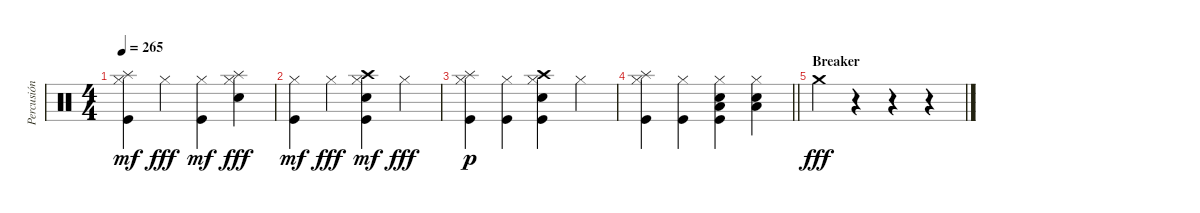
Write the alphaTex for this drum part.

\track ("Percusión" "Percusión") {instrument percussion}
\staff {score}
\articulation defaults
\ts (4 4)
\tempo 265
\clef neutral
\ks c
("Splash (hit)" "Hi-Hat (closed)" "Kick (hit)").4{dy mf} "Hi-Hat (closed)".4{dy fff} ("Hi-Hat (closed)" "Kick (hit)").4{dy mf} ("Splash (hit)" "Electric Snare (hit)" "Hi-Hat (closed)").4{dy fff} |
("Hi-Hat (closed)" "Kick (hit)").4{dy mf} "Hi-Hat (closed)".4{dy fff} ("Crash high (hit)" "Electric Snare (hit)" "Hi-Hat (closed)" "Kick (hit)").4{dy mf} "Hi-Hat (closed)".4{dy fff} |
("Splash (hit)" "Hi-Hat (closed)" "Kick (hit)").4{dy p} ("Hi-Hat (closed)" "Kick (hit)").4 ("Crash high (hit)" "Electric Snare (hit)" "Hi-Hat (closed)" "Kick (hit)").4 "Hi-Hat (closed)".4 |
\barLineRight lightlight
("Splash (hit)" "Hi-Hat (closed)" "Kick (hit)").4 ("Hi-Hat (closed)" "Kick (hit)").4 ("Low Floor Tom (hit)" "Electric Snare (hit)" "Hi-Hat (closed)" "Kick (hit)").4 ("Low Floor Tom (hit)" "Electric Snare (hit)" "Hi-Hat (closed)").4 |
\section ("" "Breaker")
"Crash medium (hit)".4{dy fff} r.4 r.4 r.4
